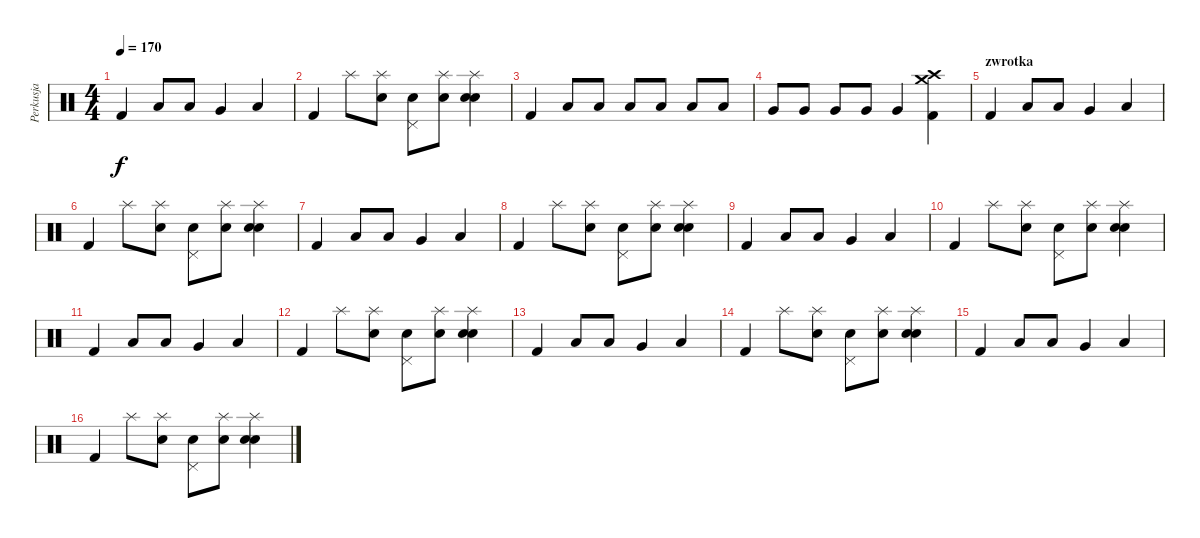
\track ("Perkusja" "Perkusja") {instrument percussion}
\staff {score}
\articulation defaults
\ts (4 4)
\tempo 170
\clef neutral
\ks c "Kick (hit) 2".4{dy f} "Low Tom (hit)".8 "Low Tom (hit)".8 "Very Low Tom (hit)".4 "Low Tom (hit)".4
|
"Kick (hit) 2".4 "Splash (hit)".8 ("Splash (hit)" "Electric Snare (hit)").8 ("Pedal Hi-Hat (hit)" "Electric Snare (hit)").8 ("Splash (hit)" "Electric Snare (hit)").8 ("Splash (hit)" "Electric Snare (hit)" "Snare (hit) 2").4 |
"Kick (hit) 2".4 "Low Tom (hit)".8 "Low Tom (hit)".8 "Low Tom (hit)".8 "Low Tom (hit)".8 "Low Tom (hit)".8 "Low Tom (hit)".8 |
"Very Low Tom (hit)".8 "Very Low Tom (hit)".8 "Very Low Tom (hit)".8 "Very Low Tom (hit)".8 "Very Low Tom (hit)".4 ("Crash high (hit)" "Crash medium (hit)" "Kick (hit) 2").4 |
\section ("" "zwrotka")
"Kick (hit) 2".4 "Low Tom (hit)".8 "Low Tom (hit)".8 "Very Low Tom (hit)".4 "Low Tom (hit)".4 |
"Kick (hit) 2".4 "Splash (hit)".8 ("Splash (hit)" "Electric Snare (hit)").8 ("Pedal Hi-Hat (hit)" "Electric Snare (hit)").8 ("Splash (hit)" "Electric Snare (hit)").8 ("Splash (hit)" "Electric Snare (hit)" "Snare (hit) 2").4 |
"Kick (hit) 2".4 "Low Tom (hit)".8 "Low Tom (hit)".8 "Very Low Tom (hit)".4 "Low Tom (hit)".4 |
"Kick (hit) 2".4 "Splash (hit)".8 ("Splash (hit)" "Electric Snare (hit)").8 ("Pedal Hi-Hat (hit)" "Electric Snare (hit)").8 ("Splash (hit)" "Electric Snare (hit)").8 ("Splash (hit)" "Electric Snare (hit)" "Snare (hit) 2").4 |
"Kick (hit) 2".4 "Low Tom (hit)".8 "Low Tom (hit)".8 "Very Low Tom (hit)".4 "Low Tom (hit)".4 |
"Kick (hit) 2".4 "Splash (hit)".8 ("Splash (hit)" "Electric Snare (hit)").8 ("Pedal Hi-Hat (hit)" "Electric Snare (hit)").8 ("Splash (hit)" "Electric Snare (hit)").8 ("Splash (hit)" "Electric Snare (hit)" "Snare (hit) 2").4 |
"Kick (hit) 2".4 "Low Tom (hit)".8 "Low Tom (hit)".8 "Very Low Tom (hit)".4 "Low Tom (hit)".4 |
"Kick (hit) 2".4 "Splash (hit)".8 ("Splash (hit)" "Electric Snare (hit)").8 ("Pedal Hi-Hat (hit)" "Electric Snare (hit)").8 ("Splash (hit)" "Electric Snare (hit)").8 ("Splash (hit)" "Electric Snare (hit)" "Snare (hit) 2").4 |
"Kick (hit) 2".4 "Low Tom (hit)".8 "Low Tom (hit)".8 "Very Low Tom (hit)".4 "Low Tom (hit)".4 |
"Kick (hit) 2".4 "Splash (hit)".8 ("Splash (hit)" "Electric Snare (hit)").8 ("Pedal Hi-Hat (hit)" "Electric Snare (hit)").8 ("Splash (hit)" "Electric Snare (hit)").8 ("Splash (hit)" "Electric Snare (hit)" "Snare (hit) 2").4 |
"Kick (hit) 2".4 "Low Tom (hit)".8 "Low Tom (hit)".8 "Very Low Tom (hit)".4 "Low Tom (hit)".4 |
"Kick (hit) 2".4 "Splash (hit)".8 ("Splash (hit)" "Electric Snare (hit)").8 ("Pedal Hi-Hat (hit)" "Electric Snare (hit)").8 ("Splash (hit)" "Electric Snare (hit)").8 ("Splash (hit)" "Electric Snare (hit)" "Snare (hit) 2").4
